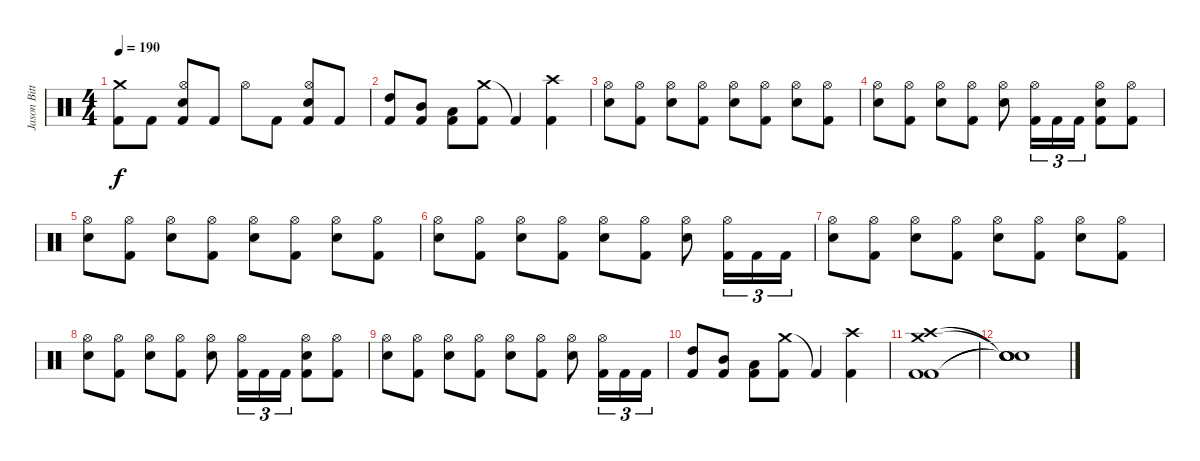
\track ("Jason Bittner" "Jason Bitt") {instrument percussion}
\staff {score}
\articulation defaults
\ts (4 4)
\tempo 190
\clef neutral
\ks c
("Crash medium (hit)" "Kick (hit) 2").8{dy f} "Kick (hit) 2".8 ("Hi-Hat (open)" "Snare (hit) 2" "Kick (hit) 2").8 "Kick (hit) 2".8 "Hi-Hat (open)".8 "Kick (hit) 2".8 ("Hi-Hat (open)" "Snare (hit) 2" "Kick (hit) 2").8 "Kick (hit) 2".8 |
("High Tom (hit)" "Kick (hit) 2").8 ("Mid Tom (hit)" "Kick (hit) 2").8 ("Low Tom (hit)" "Kick (hit) 2").8 ("Crash medium (hit)" "Kick (hit) 2").8 "Kick (hit) 2"{t}.4 ("Crash high (hit)" "Kick (hit) 2").4 |
("Hi-Hat (open)" "Snare (hit) 2").8 ("Hi-Hat (open)" "Kick (hit) 2").8 ("Hi-Hat (open)" "Snare (hit) 2").8 ("Hi-Hat (open)" "Kick (hit) 2").8 ("Hi-Hat (open)" "Snare (hit) 2").8 ("Hi-Hat (open)" "Kick (hit) 2").8 ("Hi-Hat (open)" "Snare (hit) 2").8 ("Hi-Hat (open)" "Kick (hit) 2").8 |
("Hi-Hat (open)" "Snare (hit) 2").8 ("Hi-Hat (open)" "Kick (hit) 2").8 ("Hi-Hat (open)" "Snare (hit) 2").8 ("Hi-Hat (open)" "Kick (hit) 2").8 ("Hi-Hat (open)" "Snare (hit) 2").8 ("Hi-Hat (open)" "Kick (hit) 2").16{tu (3 2)} "Kick (hit) 2".16{tu (3 2)} "Kick (hit) 2".16{tu (3 2)} ("Hi-Hat (open)" "Snare (hit) 2" "Kick (hit) 2").8 ("Hi-Hat (open)" "Kick (hit) 2").8 |
("Hi-Hat (open)" "Snare (hit) 2").8 ("Hi-Hat (open)" "Kick (hit) 2").8 ("Hi-Hat (open)" "Snare (hit) 2").8 ("Hi-Hat (open)" "Kick (hit) 2").8 ("Hi-Hat (open)" "Snare (hit) 2").8 ("Hi-Hat (open)" "Kick (hit) 2").8 ("Hi-Hat (open)" "Snare (hit) 2").8 ("Hi-Hat (open)" "Kick (hit) 2").8 |
("Hi-Hat (open)" "Snare (hit) 2").8 ("Hi-Hat (open)" "Kick (hit) 2").8 ("Hi-Hat (open)" "Snare (hit) 2").8 ("Hi-Hat (open)" "Kick (hit) 2").8 ("Hi-Hat (open)" "Snare (hit) 2").8 ("Hi-Hat (open)" "Kick (hit) 2").8 ("Hi-Hat (open)" "Snare (hit) 2").8 ("Hi-Hat (open)" "Kick (hit) 2").16{tu (3 2)} "Kick (hit) 2".16{tu (3 2)} "Kick (hit) 2".16{tu (3 2)} |
("Hi-Hat (open)" "Snare (hit) 2").8 ("Hi-Hat (open)" "Kick (hit) 2").8 ("Hi-Hat (open)" "Snare (hit) 2").8 ("Hi-Hat (open)" "Kick (hit) 2").8 ("Hi-Hat (open)" "Snare (hit) 2").8 ("Hi-Hat (open)" "Kick (hit) 2").8 ("Hi-Hat (open)" "Snare (hit) 2").8 ("Hi-Hat (open)" "Kick (hit) 2").8 |
("Hi-Hat (open)" "Snare (hit) 2").8 ("Hi-Hat (open)" "Kick (hit) 2").8 ("Hi-Hat (open)" "Snare (hit) 2").8 ("Hi-Hat (open)" "Kick (hit) 2").8 ("Hi-Hat (open)" "Snare (hit) 2").8 ("Hi-Hat (open)" "Kick (hit) 2").16{tu (3 2)} "Kick (hit) 2".16{tu (3 2)} "Kick (hit) 2".16{tu (3 2)} ("Hi-Hat (open)" "Snare (hit) 2" "Kick (hit) 2").8 ("Hi-Hat (open)" "Kick (hit) 2").8 |
("Hi-Hat (open)" "Snare (hit) 2").8 ("Hi-Hat (open)" "Kick (hit) 2").8 ("Hi-Hat (open)" "Snare (hit) 2").8 ("Hi-Hat (open)" "Kick (hit) 2").8 ("Hi-Hat (open)" "Snare (hit) 2").8 ("Hi-Hat (open)" "Kick (hit) 2").8 ("Hi-Hat (open)" "Snare (hit) 2").8 ("Hi-Hat (open)" "Kick (hit) 2").16{tu (3 2)} "Kick (hit) 2".16{tu (3 2)} "Kick (hit) 2".16{tu (3 2)} |
("High Tom (hit)" "Kick (hit) 2").8 ("Mid Tom (hit)" "Kick (hit) 2").8 ("Low Tom (hit)" "Kick (hit) 2").8 ("Crash medium (hit)" "Kick (hit) 2").8 "Kick (hit) 2"{t}.4 ("Crash high (hit)" "Kick (hit) 2").4 |
("Crash high (hit)" "Crash medium (hit)" "Kick (hit) 2" "Kick (hit) 2").1 |
("Snare (hit)"{t} "Snare (hit)"{t} "Snare (hit)"{t} "Snare (hit)"{t}).1
